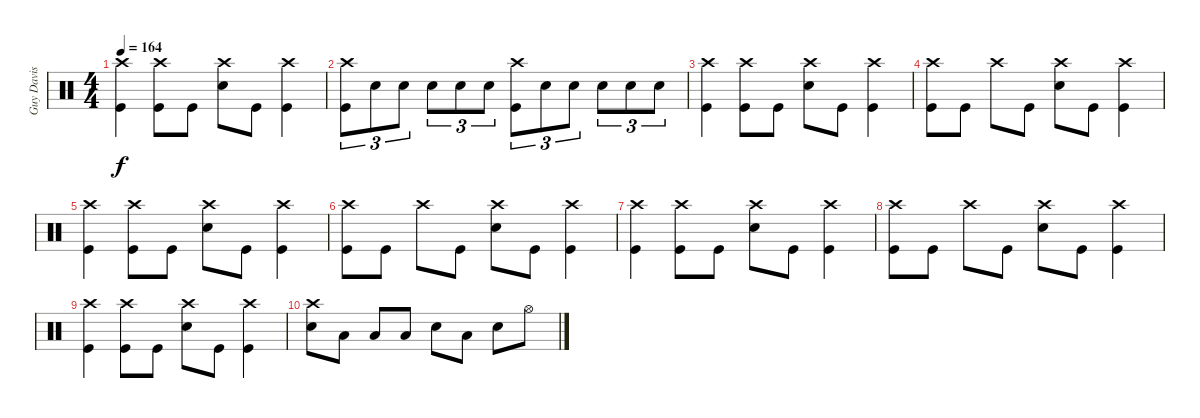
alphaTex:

\track ("Guy Davis" "Guy Davis") {instrument percussion}
\staff {score}
\articulation defaults
\ts (4 4)
\tempo 164
\clef neutral
\ks c
("Crash high (hit)" "Kick (hit)").4{dy f} ("Crash high (hit)" "Kick (hit)").8 "Kick (hit)".8 ("Crash high (hit)" "Snare (hit) 2").8 "Kick (hit)".8 ("Crash high (hit)" "Kick (hit)").4 |
("Crash high (hit)" "Kick (hit)").8{tu (3 2)} "Snare (hit) 2".8{tu (3 2)} "Snare (hit) 2".8{tu (3 2)} "Snare (hit) 2".8{tu (3 2)} "Snare (hit) 2".8{tu (3 2)} "Snare (hit) 2".8{tu (3 2)} ("Crash high (hit)" "Kick (hit)").8{tu (3 2)} "Snare (hit) 2".8{tu (3 2)} "Snare (hit) 2".8{tu (3 2)} "Snare (hit) 2".8{tu (3 2)} "Snare (hit) 2".8{tu (3 2)} "Snare (hit) 2".8{tu (3 2)} |
("Crash high (hit)" "Kick (hit)").4 ("Crash high (hit)" "Kick (hit)").8 "Kick (hit)".8 ("Crash high (hit)" "Snare (hit) 2").8 "Kick (hit)".8 ("Crash high (hit)" "Kick (hit)").4 |
("Crash high (hit)" "Kick (hit)").8 "Kick (hit)".8 "Crash high (hit)".8 "Kick (hit)".8 ("Crash high (hit)" "Snare (hit) 2").8 "Kick (hit)".8 ("Crash high (hit)" "Kick (hit)").4 |
("Crash high (hit)" "Kick (hit)").4 ("Crash high (hit)" "Kick (hit)").8 "Kick (hit)".8 ("Crash high (hit)" "Snare (hit) 2").8 "Kick (hit)".8 ("Crash high (hit)" "Kick (hit)").4 |
("Crash high (hit)" "Kick (hit)").8 "Kick (hit)".8 "Crash high (hit)".8 "Kick (hit)".8 ("Crash high (hit)" "Snare (hit) 2").8 "Kick (hit)".8 ("Crash high (hit)" "Kick (hit)").4 |
("Crash high (hit)" "Kick (hit)").4 ("Crash high (hit)" "Kick (hit)").8 "Kick (hit)".8 ("Crash high (hit)" "Snare (hit) 2").8 "Kick (hit)".8 ("Crash high (hit)" "Kick (hit)").4 |
("Crash high (hit)" "Kick (hit)").8 "Kick (hit)".8 "Crash high (hit)".8 "Kick (hit)".8 ("Crash high (hit)" "Snare (hit) 2").8 "Kick (hit)".8 ("Crash high (hit)" "Kick (hit)").4 |
("Crash high (hit)" "Kick (hit)").4 ("Crash high (hit)" "Kick (hit)").8 "Kick (hit)".8 ("Crash high (hit)" "Snare (hit) 2").8 "Kick (hit)".8 ("Crash high (hit)" "Kick (hit)").4 |
("Crash high (hit)" "Snare (hit) 2").8 "Low Tom (hit)".8 "Low Tom (hit)".8 "Low Tom (hit)".8 "Snare (hit) 2".8 "Low Tom (hit)".8 "Snare (hit) 2".8 "Hi-Hat (open)".8
